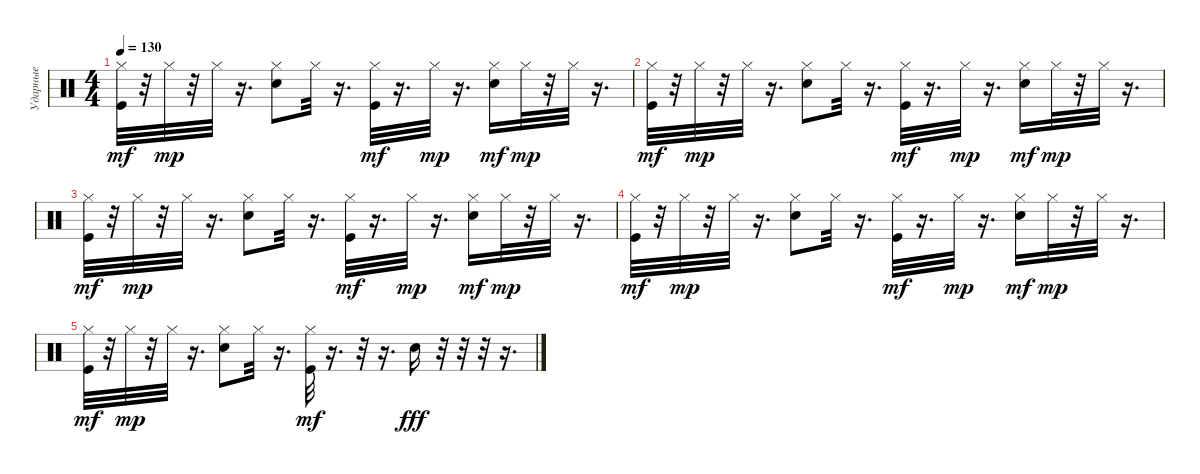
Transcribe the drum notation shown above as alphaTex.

\track ("Ударные" "Ударные") {instrument percussion}
\staff {score}
\articulation defaults
\ts (4 4)
\tempo 130
\clef neutral
\ks c
("Kick (hit)" "Hi-Hat (closed)").32{dy mf} r.32 "Hi-Hat (closed)".32{dy mp} r.32 "Hi-Hat (closed)".32 r.16{d} ("Snare (hit) 2" "Hi-Hat (closed)").8 "Hi-Hat (closed)".32 r.16{d} ("Kick (hit)" "Hi-Hat (closed)").32{dy mf} r.16{d} "Hi-Hat (closed)".32{dy mp} r.16{d} ("Snare (hit) 2" "Hi-Hat (closed)").16{dy mf} "Hi-Hat (closed)".32{dy mp} r.32 "Hi-Hat (closed)".32 r.16{d} |
("Kick (hit)" "Hi-Hat (closed)").32{dy mf} r.32 "Hi-Hat (closed)".32{dy mp} r.32 "Hi-Hat (closed)".32 r.16{d} ("Snare (hit) 2" "Hi-Hat (closed)").8 "Hi-Hat (closed)".32 r.16{d} ("Kick (hit)" "Hi-Hat (closed)").32{dy mf} r.16{d} "Hi-Hat (closed)".32{dy mp} r.16{d} ("Snare (hit) 2" "Hi-Hat (closed)").16{dy mf} "Hi-Hat (closed)".32{dy mp} r.32 "Hi-Hat (closed)".32 r.16{d} |
("Kick (hit)" "Hi-Hat (closed)").32{dy mf} r.32 "Hi-Hat (closed)".32{dy mp} r.32 "Hi-Hat (closed)".32 r.16{d} ("Snare (hit) 2" "Hi-Hat (closed)").8 "Hi-Hat (closed)".32 r.16{d} ("Kick (hit)" "Hi-Hat (closed)").32{dy mf} r.16{d} "Hi-Hat (closed)".32{dy mp} r.16{d} ("Snare (hit) 2" "Hi-Hat (closed)").16{dy mf} "Hi-Hat (closed)".32{dy mp} r.32 "Hi-Hat (closed)".32 r.16{d} |
("Kick (hit)" "Hi-Hat (closed)").32{dy mf} r.32 "Hi-Hat (closed)".32{dy mp} r.32 "Hi-Hat (closed)".32 r.16{d} ("Snare (hit) 2" "Hi-Hat (closed)").8 "Hi-Hat (closed)".32 r.16{d} ("Kick (hit)" "Hi-Hat (closed)").32{dy mf} r.16{d} "Hi-Hat (closed)".32{dy mp} r.16{d} ("Snare (hit) 2" "Hi-Hat (closed)").16{dy mf} "Hi-Hat (closed)".32{dy mp} r.32 "Hi-Hat (closed)".32 r.16{d} |
("Kick (hit)" "Hi-Hat (closed)").32{dy mf} r.32 "Hi-Hat (closed)".32{dy mp} r.32 "Hi-Hat (closed)".32 r.16{d} ("Snare (hit) 2" "Hi-Hat (closed)").8 "Hi-Hat (closed)".32 r.16{d} ("Kick (hit)" "Hi-Hat (closed)").32{dy mf} r.16{d} r.32 r.16{d} "Snare (hit) 2".16{dy fff} r.32 r.32 r.32 r.16{d}
